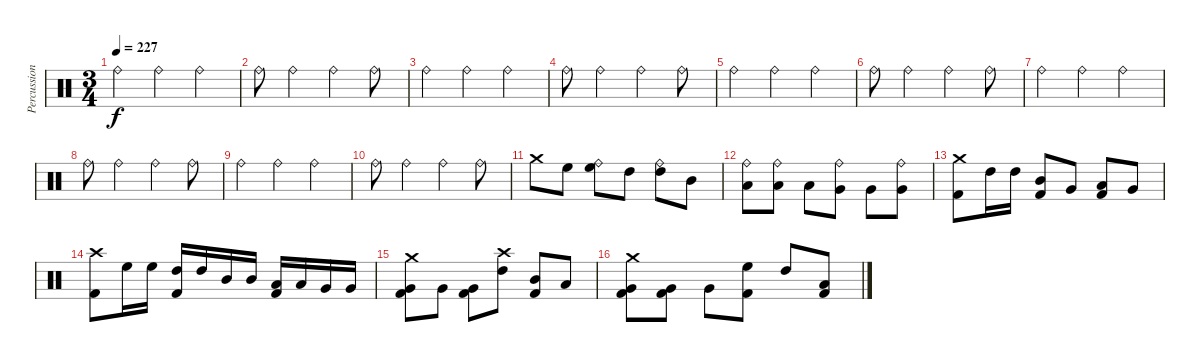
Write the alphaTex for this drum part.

\track ("Percussion" "Percussion") {instrument percussion}
\staff {score}
\articulation defaults
\ts (3 4)
\tempo 227
\clef neutral
\ks c "Ride (bell)".4{dy f} "Ride (bell)".4 "Ride (bell)".4
|
"Ride (bell)".8 "Ride (bell)".4 "Ride (bell)".4 "Ride (bell)".8 |
"Ride (bell)".4 "Ride (bell)".4 "Ride (bell)".4 |
"Ride (bell)".8 "Ride (bell)".4 "Ride (bell)".4 "Ride (bell)".8 |
"Ride (bell)".4 "Ride (bell)".4 "Ride (bell)".4 |
"Ride (bell)".8 "Ride (bell)".4 "Ride (bell)".4 "Ride (bell)".8 |
"Ride (bell)".4 "Ride (bell)".4 "Ride (bell)".4 |
"Ride (bell)".8 "Ride (bell)".4 "Ride (bell)".4 "Ride (bell)".8 |
"Ride (bell)".4 "Ride (bell)".4 "Ride (bell)".4 |
"Ride (bell)".8 "Ride (bell)".4 "Ride (bell)".4 "Ride (bell)".8 |
"Crash medium (hit)".8 "High Floor Tom (hit)".8 ("Ride (bell)" "High Floor Tom (hit)").8 "High Tom (hit)".8 ("Ride (bell)" "High Tom (hit)").8 "Mid Tom (hit)".8 |
("Ride (bell)" "Low Tom (hit)").8 ("Ride (bell)" "Low Tom (hit)").8 "Low Tom (hit)".8 ("Ride (bell)" "Very Low Tom (hit)").8 "Very Low Tom (hit)".8 ("Ride (bell)" "Very Low Tom (hit)").8 |
("Crash medium (hit)" "Kick (hit) 2").8 "High Tom (hit)".16 "High Tom (hit)".16 ("Mid Tom (hit)" "Kick (hit) 2").8 "Very Low Tom (hit)".8 ("Low Tom (hit)" "Kick (hit) 2").8 "Very Low Tom (hit)".8 |
("Crash high (hit)" "Kick (hit) 2").8 "High Floor Tom (hit)".16 "High Floor Tom (hit)".16 ("High Tom (hit)" "Kick (hit) 2").16 "High Tom (hit)".16 "Mid Tom (hit)".16 "Mid Tom (hit)".16 ("Low Tom (hit)" "Kick (hit) 2").16 "Low Tom (hit)".16 "Very Low Tom (hit)".16 "Very Low Tom (hit)".16 |
("Crash medium (hit)" "Very Low Tom (hit)" "Kick (hit) 2").8 "Very Low Tom (hit)".8 ("Very Low Tom (hit)" "Kick (hit) 2").8 ("Crash high (hit)" "High Tom (hit)").8 ("Mid Tom (hit)" "Kick (hit) 2").8 "Low Tom (hit)".8 |
("Crash medium (hit)" "Very Low Tom (hit)" "Kick (hit) 2").8 ("Very Low Tom (hit)" "Kick (hit) 2").8 "Very Low Tom (hit)".8 ("High Floor Tom (hit)" "Kick (hit) 2").8 "High Tom (hit)".8 ("Low Tom (hit)" "Kick (hit) 2").8
